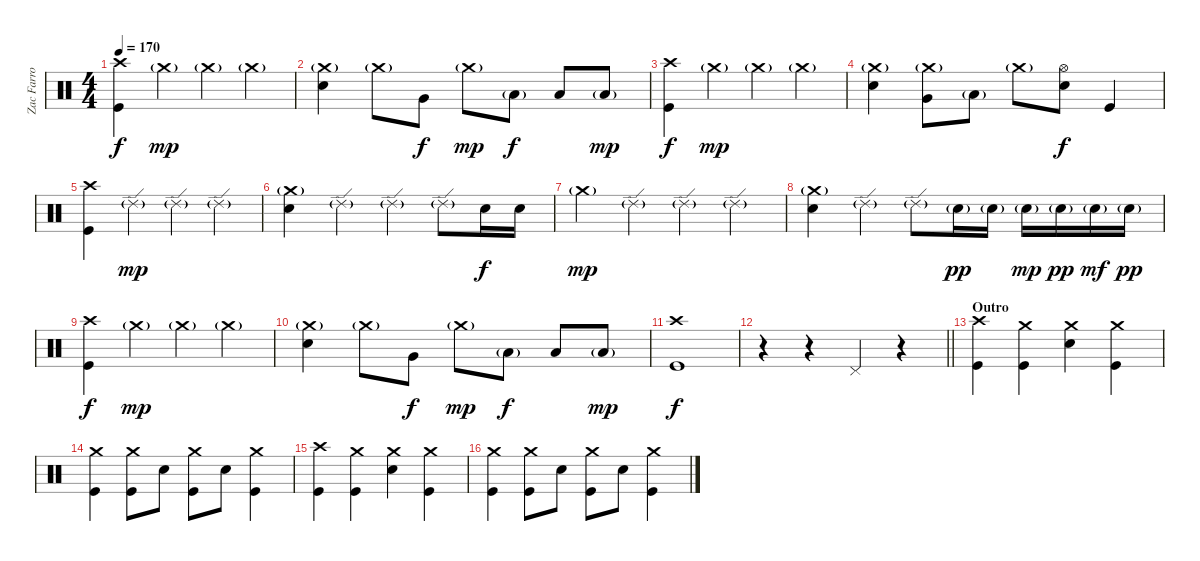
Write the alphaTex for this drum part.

\track ("Zac Farro (Drums)" "Zac Farro ") {instrument percussion}
\staff {score}
\articulation defaults
\ts (4 4)
\tempo 170
\clef neutral
\ks c
("Crash high (hit)" "Kick (hit)").4{dy f} "Crash medium (hit)"{g}.4{dy mp} "Crash medium (hit)"{g}.4 "Crash medium (hit)"{g}.4 |
("Crash medium (hit)"{g} "Electric Snare (hit)").4 "Crash medium (hit)"{g}.8 "Very Low Tom (hit)".8{dy f} "Crash medium (hit)"{g}.8{dy mp} "Low Floor Tom (hit)"{g}.8{dy f} "Low Floor Tom (hit)".8 "Low Floor Tom (hit)"{g}.8{dy mp} |
("Crash high (hit)" "Kick (hit)").4{dy f} "Crash medium (hit)"{g}.4{dy mp} "Crash medium (hit)"{g}.4 "Crash medium (hit)"{g}.4 |
("Crash medium (hit)"{g} "Electric Snare (hit)").4 ("Crash medium (hit)"{g} "Very Low Tom (hit)").8 "Low Floor Tom (hit)"{g}.8 "Crash medium (hit)"{g}.8 ("Hi-Hat (open)" "Electric Snare (hit)").8{dy f} "Kick (hit)".4 |
("Crash high (hit)" "Kick (hit)").4 "Ride (edge) 2"{g}.4{dy mp} "Ride (edge) 2"{g}.4 "Ride (edge) 2"{g}.4 |
("Crash medium (hit)"{g} "Electric Snare (hit)").4 "Ride (edge) 2"{g}.4 "Ride (edge) 2"{g}.4 "Ride (edge) 2"{g}.8 "Electric Snare (hit)".16{dy f} "Electric Snare (hit)".16 |
"Crash medium (hit)"{g}.4{dy mp} "Ride (edge) 2"{g}.4 "Ride (edge) 2"{g}.4 "Ride (edge) 2"{g}.4 |
("Crash medium (hit)"{g} "Electric Snare (hit)").4 "Ride (edge) 2"{g}.4 "Ride (edge) 2"{g}.8 "Electric Snare (hit)"{g}.16{dy pp} "Electric Snare (hit)"{g}.16 "Electric Snare (hit)"{g}.16{dy mp} "Electric Snare (hit)"{g}.16{dy pp} "Electric Snare (hit)"{g}.16{dy mf} "Electric Snare (hit)"{g}.16{dy pp} |
("Crash high (hit)" "Kick (hit)").4{dy f} "Crash medium (hit)"{g}.4{dy mp} "Crash medium (hit)"{g}.4 "Crash medium (hit)"{g}.4 |
("Crash medium (hit)"{g} "Electric Snare (hit)").4 "Crash medium (hit)"{g}.8 "Very Low Tom (hit)".8{dy f} "Crash medium (hit)"{g}.8{dy mp} "Low Floor Tom (hit)"{g}.8{dy f} "Low Floor Tom (hit)".8 "Low Floor Tom (hit)"{g}.8{dy mp} |
("Crash high (hit)" "Kick (hit)").1{dy f} |
\barLineRight lightlight
r.4 r.4 "Pedal Hi-Hat (hit)".4 r.4 |
\section ("" "Outro")
("Crash high (hit)" "Kick (hit)").4 ("Crash medium (hit)" "Kick (hit)").4 ("Crash medium (hit)" "Electric Snare (hit)").4 ("Crash medium (hit)" "Kick (hit)").4 |
("Crash medium (hit)" "Kick (hit)").4 ("Crash medium (hit)" "Kick (hit)").8 "Electric Snare (hit)".8 ("Crash medium (hit)" "Kick (hit)").8 "Electric Snare (hit)".8 ("Crash medium (hit)" "Kick (hit)").4 |
("Crash high (hit)" "Kick (hit)").4 ("Crash medium (hit)" "Kick (hit)").4 ("Crash medium (hit)" "Electric Snare (hit)").4 ("Crash medium (hit)" "Kick (hit)").4 |
("Crash medium (hit)" "Kick (hit)").4 ("Crash medium (hit)" "Kick (hit)").8 "Electric Snare (hit)".8 ("Crash medium (hit)" "Kick (hit)").8 "Electric Snare (hit)".8 ("Crash medium (hit)" "Kick (hit)").4
